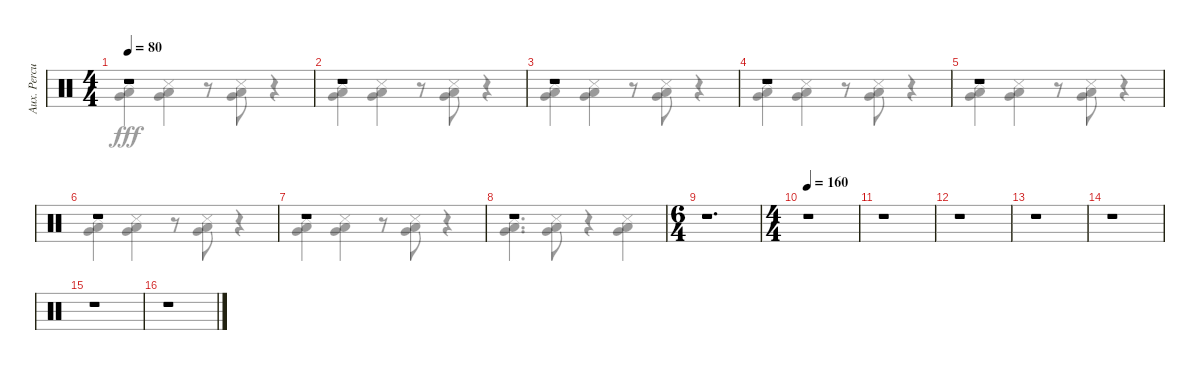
\track ("Aux. Percussion" "Aux. Percu") {instrument percussion}
\staff {score}
\articulation defaults
\voice
\ts (4 4)
\tempo 80
\clef neutral
\ks c
r.1{dy mf} |
r.1 |
r.1 |
r.1 |
r.1 |
r.1 |
r.1 |
r.1 |
\ts (6 4)
r.1{d} |
\ts (4 4)
\tempo 160
r.1 |
r.1 |
r.1 |
r.1 |
r.1 |
r.1 |
r.1
\voice
\clef neutral
\ottava regular
\simile none
\ks c
("Snare (side stick) 3" "Low Tom (hit)" "Very Low Tom (hit)").4{dy fff} ("Snare (side stick) 3" "Low Tom (hit)" "Very Low Tom (hit)").4 r.8 ("Snare (side stick) 3" "Low Tom (hit)" "Very Low Tom (hit)").8 r.4 |
("Snare (side stick) 3" "Low Tom (hit)" "Very Low Tom (hit)").4 ("Snare (side stick) 3" "Low Tom (hit)" "Very Low Tom (hit)").4 r.8 ("Snare (side stick) 3" "Low Tom (hit)" "Very Low Tom (hit)").8 r.4 |
("Snare (side stick) 3" "Low Tom (hit)" "Very Low Tom (hit)").4 ("Snare (side stick) 3" "Low Tom (hit)" "Very Low Tom (hit)").4 r.8 ("Snare (side stick) 3" "Low Tom (hit)" "Very Low Tom (hit)").8 r.4 |
("Snare (side stick) 3" "Low Tom (hit)" "Very Low Tom (hit)").4 ("Snare (side stick) 3" "Low Tom (hit)" "Very Low Tom (hit)").4 r.8 ("Snare (side stick) 3" "Low Tom (hit)" "Very Low Tom (hit)").8 r.4 |
("Snare (side stick) 3" "Low Tom (hit)" "Very Low Tom (hit)").4 ("Snare (side stick) 3" "Low Tom (hit)" "Very Low Tom (hit)").4 r.8 ("Snare (side stick) 3" "Low Tom (hit)" "Very Low Tom (hit)").8 r.4 |
("Snare (side stick) 3" "Low Tom (hit)" "Very Low Tom (hit)").4 ("Snare (side stick) 3" "Low Tom (hit)" "Very Low Tom (hit)").4 r.8 ("Snare (side stick) 3" "Low Tom (hit)" "Very Low Tom (hit)").8 r.4 |
("Snare (side stick) 3" "Low Tom (hit)" "Very Low Tom (hit)").4 ("Snare (side stick) 3" "Low Tom (hit)" "Very Low Tom (hit)").4 r.8 ("Snare (side stick) 3" "Low Tom (hit)" "Very Low Tom (hit)").8 r.4 |
("Snare (side stick) 3" "Low Tom (hit)" "Very Low Tom (hit)").4{d} ("Snare (side stick) 3" "Low Tom (hit)" "Very Low Tom (hit)").8 r.4 ("Snare (side stick) 3" "Low Tom (hit)" "Very Low Tom (hit)").4 |
|
|
|
|
|
|
|
